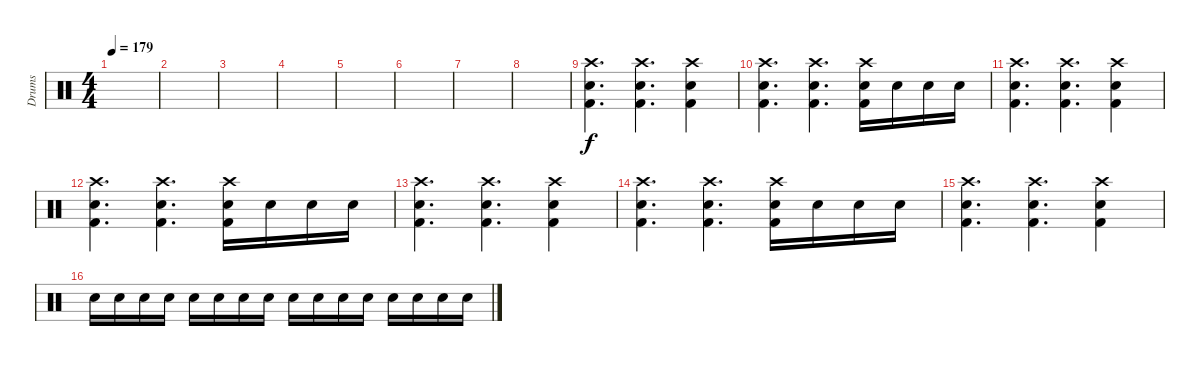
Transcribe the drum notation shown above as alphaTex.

\track ("Drums" "Drums") {instrument percussion}
\staff {score}
\articulation defaults
\ts (4 4)
\tempo 179
\clef neutral
\ks c
|
|
|
|
|
|
|
|
("Crash high (hit)" "Snare (hit) 2" "Kick (hit) 2").4{d} ("Crash high (hit)" "Snare (hit) 2" "Kick (hit) 2").4{d} ("Crash high (hit)" "Snare (hit) 2" "Kick (hit) 2").4 |
("Crash high (hit)" "Snare (hit) 2" "Kick (hit) 2").4{d} ("Crash high (hit)" "Snare (hit) 2" "Kick (hit) 2").4{d} ("Crash high (hit)" "Snare (hit) 2" "Kick (hit) 2").16 "Snare (hit) 2".16 "Snare (hit) 2".16 "Snare (hit) 2".16 |
("Crash high (hit)" "Snare (hit) 2" "Kick (hit) 2").4{d} ("Crash high (hit)" "Snare (hit) 2" "Kick (hit) 2").4{d} ("Crash high (hit)" "Snare (hit) 2" "Kick (hit) 2").4 |
("Crash high (hit)" "Snare (hit) 2" "Kick (hit) 2").4{d} ("Crash high (hit)" "Snare (hit) 2" "Kick (hit) 2").4{d} ("Crash high (hit)" "Snare (hit) 2" "Kick (hit) 2").16 "Snare (hit) 2".16 "Snare (hit) 2".16 "Snare (hit) 2".16 |
("Crash high (hit)" "Snare (hit) 2" "Kick (hit) 2").4{d} ("Crash high (hit)" "Snare (hit) 2" "Kick (hit) 2").4{d} ("Crash high (hit)" "Snare (hit) 2" "Kick (hit) 2").4 |
("Crash high (hit)" "Snare (hit) 2" "Kick (hit) 2").4{d} ("Crash high (hit)" "Snare (hit) 2" "Kick (hit) 2").4{d} ("Crash high (hit)" "Snare (hit) 2" "Kick (hit) 2").16 "Snare (hit) 2".16 "Snare (hit) 2".16 "Snare (hit) 2".16 |
("Crash high (hit)" "Snare (hit) 2" "Kick (hit) 2").4{d} ("Crash high (hit)" "Snare (hit) 2" "Kick (hit) 2").4{d} ("Crash high (hit)" "Snare (hit) 2" "Kick (hit) 2").4 |
"Snare (hit) 2".16 "Snare (hit) 2".16 "Snare (hit) 2".16 "Snare (hit) 2".16 "Snare (hit) 2".16 "Snare (hit) 2".16 "Snare (hit) 2".16 "Snare (hit) 2".16 "Snare (hit) 2".16 "Snare (hit) 2".16 "Snare (hit) 2".16 "Snare (hit) 2".16 "Snare (hit) 2".16 "Snare (hit) 2".16 "Snare (hit) 2".16 "Snare (hit) 2".16
